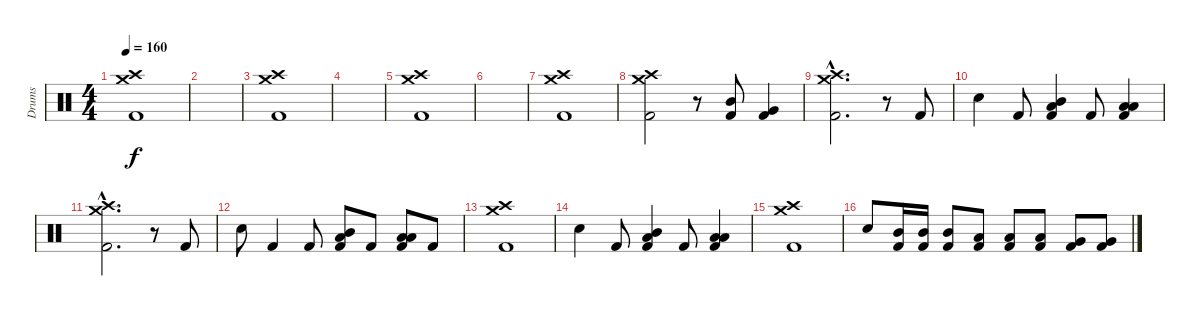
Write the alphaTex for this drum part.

\track ("Drums" "Drums") {instrument percussion}
\staff {score}
\articulation defaults
\ts (4 4)
\tempo 160
\clef neutral
\ks c
("Crash high (hit)" "Crash medium (hit)" "Kick (hit) 2").1{dy f} |
|
("Crash high (hit)" "Crash medium (hit)" "Kick (hit) 2").1 |
|
("Crash high (hit)" "Crash medium (hit)" "Kick (hit) 2").1 |
|
("Crash high (hit)" "Crash medium (hit)" "Kick (hit) 2").1 |
("Crash high (hit)" "Crash medium (hit)" "Kick (hit) 2").2 r.8 ("Mid Tom (hit)" "Kick (hit) 2").8 ("Very Low Tom (hit)" "Kick (hit) 2").4 |
\section ("" "")
("Crash high (hit)"{hac} "Crash medium (hit)"{hac} "Kick (hit) 2"{hac}).2{d} r.8 "Kick (hit) 2".8 |
"Snare (hit) 2".4 "Kick (hit) 2".8 ("Mid Tom (hit)" "Low Floor Tom (hit)" "Kick (hit) 2").4 "Kick (hit) 2".8 ("Low Tom (hit)" "Low Floor Tom (hit)" "Kick (hit) 2").4 |
("Crash high (hit)"{hac} "Crash medium (hit)"{hac} "Kick (hit) 2"{hac}).2{d} r.8 "Kick (hit) 2".8 |
"Snare (hit) 2".8 "Kick (hit) 2".4 "Kick (hit) 2".8 ("Mid Tom (hit)" "Low Floor Tom (hit)" "Kick (hit) 2").8 "Kick (hit) 2".8 ("Low Tom (hit)" "Low Floor Tom (hit)" "Kick (hit) 2").8 "Kick (hit) 2".8 |
("Crash high (hit)" "Crash medium (hit)" "Kick (hit) 2").1 |
"Snare (hit) 2".4 "Kick (hit) 2".8 ("Mid Tom (hit)" "Low Floor Tom (hit)" "Kick (hit) 2").4 "Kick (hit) 2".8 ("Low Tom (hit)" "Low Floor Tom (hit)" "Kick (hit) 2").4 |
("Crash high (hit)" "Crash medium (hit)" "Kick (hit) 2").1 |
"Snare (hit) 2".8 ("Mid Tom (hit)" "Kick (hit) 2").16 ("Mid Tom (hit)" "Kick (hit) 2").16 ("Mid Tom (hit)" "Kick (hit) 2").8 ("Low Tom (hit)" "Kick (hit) 2").8 ("Low Tom (hit)" "Kick (hit) 2").8 ("Low Tom (hit)" "Kick (hit) 2").8 ("Very Low Tom (hit)" "Kick (hit) 2").8 ("Very Low Tom (hit)" "Kick (hit) 2").8
